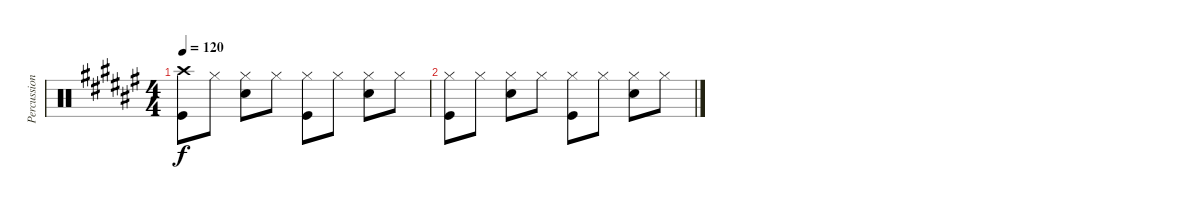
\track ("Percussion" "Percussion") {instrument percussion}
\staff {score}
\articulation defaults
\ts (4 4)
\tempo 120
\clef neutral
\ks f#
("Crash high (hit)" "Kick (hit)").8{dy f} "Hi-Hat (closed)".8 ("Hi-Hat (closed)" "Snare (hit) 2").8 "Hi-Hat (closed)".8 ("Hi-Hat (closed)" "Kick (hit)").8 "Hi-Hat (closed)".8 ("Hi-Hat (closed)" "Snare (hit) 2").8 "Hi-Hat (closed)".8 |
("Hi-Hat (closed)" "Kick (hit)").8 "Hi-Hat (closed)".8 ("Hi-Hat (closed)" "Snare (hit) 2").8 "Hi-Hat (closed)".8 ("Hi-Hat (closed)" "Kick (hit)").8 "Hi-Hat (closed)".8 ("Hi-Hat (closed)" "Snare (hit) 2").8 "Hi-Hat (closed)".8
